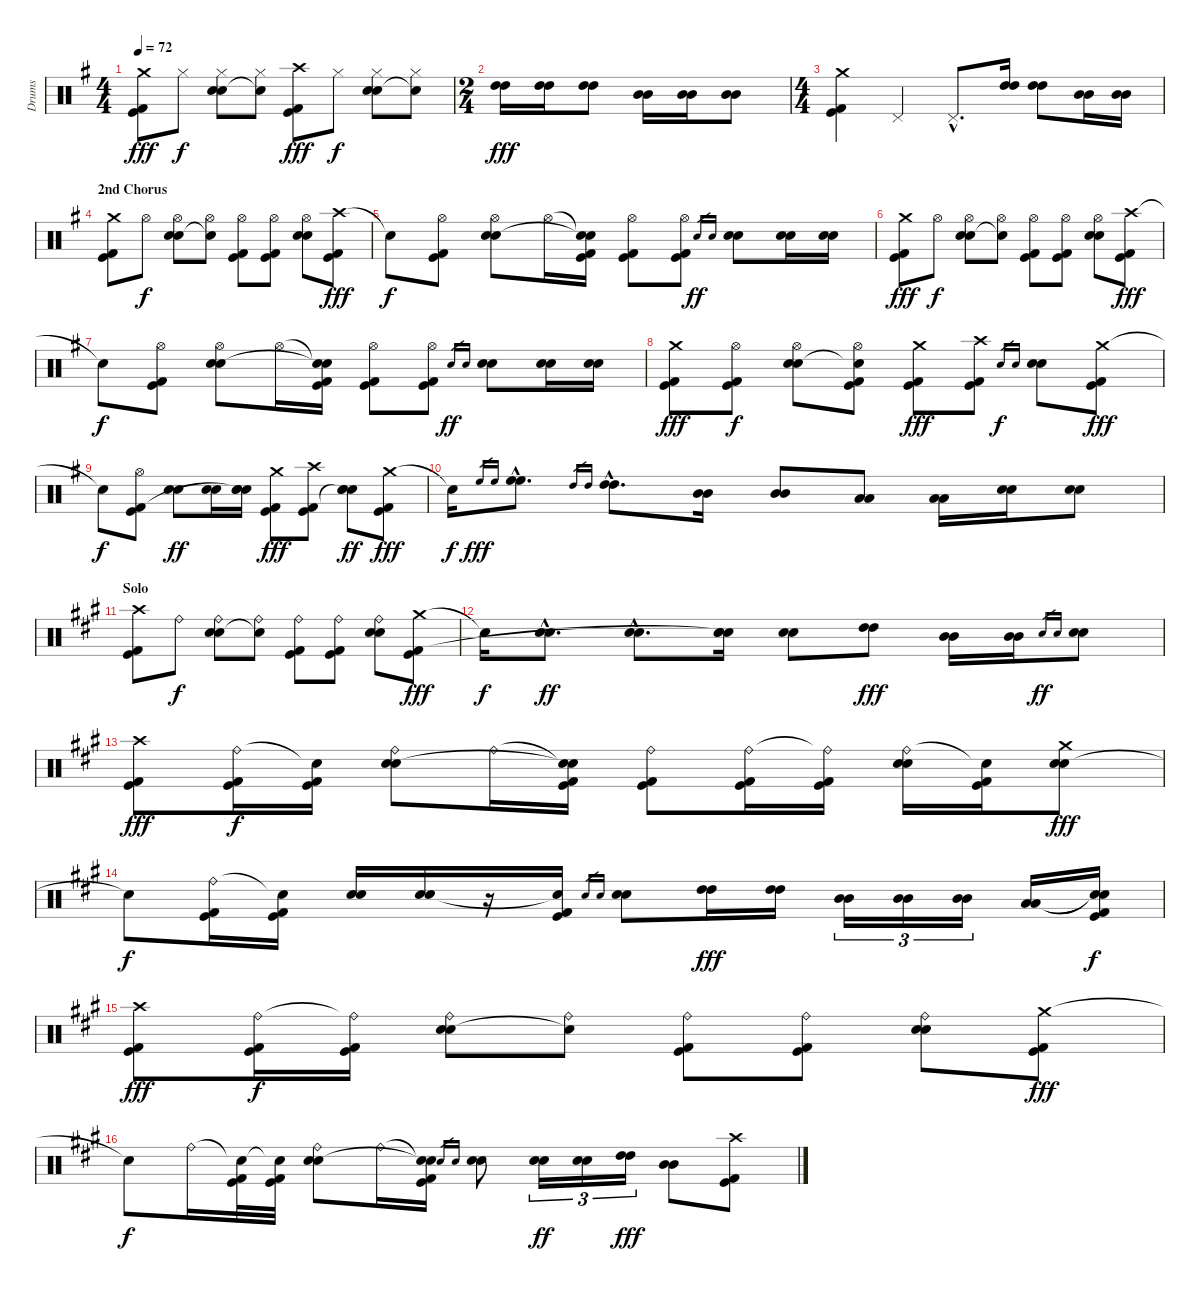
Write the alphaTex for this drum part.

\track ("Drums" "Drums") {instrument percussion}
\staff {score}
\articulation defaults
\ts (4 4)
\tempo 72
\clef neutral
\ks g
("Crash medium (hit)" "Kick (hit)" "Kick (hit) 2").8{dy fff} "Hi-Hat (closed)".8{dy f} ("Hi-Hat (closed)" "Electric Snare (hit)" "Snare (hit) 2").8 ("Hi-Hat (closed)" "Snare (hit)"{t}).8 ("Crash high (hit)" "Kick (hit)" "Kick (hit) 2").8{dy fff} "Hi-Hat (closed)".8{dy f} ("Hi-Hat (closed)" "Electric Snare (hit)" "Snare (hit) 2").8 ("Hi-Hat (closed)" "Snare (hit)"{t}).8 |
\ts (2 4)
("High Tom (hit)" "High Tom (hit)").16{dy fff} ("High Tom (hit)" "High Tom (hit)").16 ("High Tom (hit)" "High Tom (hit)").8 ("Mid Tom (hit)" "Mid Tom (hit)").16 ("Mid Tom (hit)" "Mid Tom (hit)").16 ("Mid Tom (hit)" "Mid Tom (hit)").8 |
\ts (4 4)
("Crash medium (hit)" "Kick (hit)" "Kick (hit) 2").4 "Pedal Hi-Hat (hit)".4 "Pedal Hi-Hat (hit)"{hac}.8{d} ("High Tom (hit)" "High Tom (hit)").16 ("High Tom (hit)" "High Tom (hit)").8 ("Mid Tom (hit)" "Mid Tom (hit)").16 ("Mid Tom (hit)" "Mid Tom (hit)").16 |
\section ("" "2nd Chorus")
("Crash medium (hit)" "Kick (hit)" "Kick (hit) 2").8 "Hi-Hat (open)".8{dy f} ("Hi-Hat (open)" "Electric Snare (hit)" "Snare (hit) 2").8 ("Hi-Hat (open)" "Snare (hit)"{t}).8 ("Hi-Hat (open)" "Kick (hit)" "Kick (hit) 2").8 ("Hi-Hat (open)" "Kick (hit)" "Kick (hit) 2").8 ("Hi-Hat (open)" "Electric Snare (hit)" "Snare (hit) 2").8 ("Crash high (hit)" "Kick (hit)" "Kick (hit) 2").8{dy fff} |
"Snare (hit)"{t}.8{dy f} ("Hi-Hat (open)" "Kick (hit)" "Kick (hit) 2").8 ("Hi-Hat (open)" "Electric Snare (hit)" "Snare (hit) 2").8 "Hi-Hat (open)".16 ("Snare (hit)"{t} "Snare (hit)"{t} "Kick (hit)" "Kick (hit) 2").16 ("Hi-Hat (open)" "Kick (hit)" "Kick (hit) 2").8 ("Hi-Hat (open)" "Kick (hit)" "Kick (hit) 2").8 "Electric Snare (hit)".16{gr dy ff} "Snare (hit) 2".16{gr} ("Electric Snare (hit)" "Snare (hit) 2").8 ("Electric Snare (hit)" "Snare (hit) 2").16 ("Electric Snare (hit)" "Snare (hit) 2").16 |
("Crash medium (hit)" "Kick (hit)" "Kick (hit) 2").8{dy fff} "Hi-Hat (open)".8{dy f} ("Hi-Hat (open)" "Electric Snare (hit)" "Snare (hit) 2").8 ("Hi-Hat (open)" "Snare (hit)"{t}).8 ("Hi-Hat (open)" "Kick (hit)" "Kick (hit) 2").8 ("Hi-Hat (open)" "Kick (hit)" "Kick (hit) 2").8 ("Hi-Hat (open)" "Electric Snare (hit)" "Snare (hit) 2").8 ("Crash high (hit)" "Kick (hit)" "Kick (hit) 2").8{dy fff} |
"Snare (hit)"{t}.8{dy f} ("Hi-Hat (open)" "Kick (hit)" "Kick (hit) 2").8 ("Hi-Hat (open)" "Electric Snare (hit)" "Snare (hit) 2").8 "Hi-Hat (open)".16 ("Snare (hit)"{t} "Snare (hit)"{t} "Kick (hit)" "Kick (hit) 2").16 ("Hi-Hat (open)" "Kick (hit)" "Kick (hit) 2").8 ("Hi-Hat (open)" "Kick (hit)" "Kick (hit) 2").8 "Electric Snare (hit)".16{gr dy ff} "Snare (hit) 2".16{gr} ("Electric Snare (hit)" "Snare (hit) 2").8 ("Electric Snare (hit)" "Snare (hit) 2").16 ("Electric Snare (hit)" "Snare (hit) 2").16 |
("Crash medium (hit)" "Kick (hit)" "Kick (hit) 2").8{dy fff} ("Hi-Hat (open)" "Kick (hit)" "Kick (hit) 2").8{dy f} ("Hi-Hat (open)" "Electric Snare (hit)" "Snare (hit) 2").8 ("Hi-Hat (open)" "Snare (hit)"{t} "Kick (hit)" "Kick (hit) 2").8 ("Crash medium (hit)" "Kick (hit)" "Kick (hit) 2").8{dy fff} ("Crash high (hit)" "Kick (hit)" "Kick (hit) 2").8 "Electric Snare (hit)".16{gr dy f} "Snare (hit) 2".16{gr} ("Electric Snare (hit)" "Snare (hit) 2").8 ("Crash medium (hit)" "Kick (hit)" "Kick (hit) 2").8{dy fff} |
"Snare (hit)"{t}.8{dy f} ("Hi-Hat (open)" "Kick (hit)" "Kick (hit) 2").8 ("Electric Snare (hit)" "Snare (hit) 2").8{dy ff} ("Electric Snare (hit)" "Snare (hit) 2").16 ("Electric Snare (hit)" "Snare (hit) 2" "Snare (hit)"{t}).16 ("Crash medium (hit)" "Kick (hit)" "Kick (hit) 2").8{dy fff} ("Crash high (hit)" "Kick (hit)" "Kick (hit) 2").8 ("Electric Snare (hit)" "Snare (hit) 2" "Snare (hit)"{t}).8{dy ff} ("Crash medium (hit)" "Kick (hit)" "Kick (hit) 2").8{dy fff} |
"Snare (hit)"{t}.16{dy f} "High Floor Tom (hit)".16{gr dy fff} "High Floor Tom (hit)".16{gr} ("High Floor Tom (hit)"{hac} "High Floor Tom (hit)"{hac}).8{d} "High Tom (hit)".16{gr} "High Tom (hit)".16{gr} ("High Tom (hit)"{hac} "High Tom (hit)"{hac}).8{d} ("Mid Tom (hit)" "Mid Tom (hit)").16 ("Mid Tom (hit)" "Mid Tom (hit)").8 ("Low Tom (hit)" "Low Tom (hit)").8 ("Low Tom (hit)" "Low Tom (hit)").16 ("Electric Snare (hit)" "Snare (hit) 2").16 ("Electric Snare (hit)" "Snare (hit) 2").8 |
\section ("" "Solo")
\ks a
("Crash high (hit)" "Kick (hit)" "Kick (hit) 2").8 "Ride (bell)".8{dy f} ("Ride (bell)" "Electric Snare (hit)" "Snare (hit) 2").8 ("Ride (bell)" "Snare (hit)"{t}).8 ("Ride (bell)" "Kick (hit)" "Kick (hit) 2").8 ("Ride (bell)" "Kick (hit)" "Kick (hit) 2").8 ("Ride (bell)" "Electric Snare (hit)" "Snare (hit) 2").8 ("Crash medium (hit)" "Kick (hit)" "Kick (hit) 2").8{dy fff} |
"Snare (hit)"{t}.16{dy f} ("Electric Snare (hit)"{hac} "Snare (hit) 2"{hac}).8{d dy ff} ("Electric Snare (hit)"{hac} "Snare (hit) 2"{hac}).8{d} ("Electric Snare (hit)" "Snare (hit) 2" "Snare (hit)"{t}).16 ("Electric Snare (hit)" "Snare (hit) 2").8 ("High Tom (hit)" "High Tom (hit)").8{dy fff} ("Mid Tom (hit)" "Mid Tom (hit)").16 ("Mid Tom (hit)" "Mid Tom (hit)").16 "Electric Snare (hit)".16{gr dy ff} "Snare (hit) 2".16{gr} ("Electric Snare (hit)" "Snare (hit) 2").8 |
("Crash high (hit)" "Kick (hit)" "Kick (hit) 2").8{dy fff} ("Ride (bell)" "Kick (hit)" "Kick (hit) 2").16{dy f} ("Snare (hit)"{t} "Kick (hit)" "Kick (hit) 2").16 ("Ride (bell)" "Electric Snare (hit)" "Snare (hit) 2").8 "Ride (bell)".16 ("Snare (hit)"{t} "Snare (hit)"{t} "Kick (hit)" "Kick (hit) 2").16 ("Ride (bell)" "Kick (hit)" "Kick (hit) 2").8 ("Ride (bell)" "Kick (hit)" "Kick (hit) 2").16 ("Ride (bell)"{t} "Kick (hit)" "Kick (hit) 2").16 ("Ride (bell)" "Electric Snare (hit)" "Snare (hit) 2").16 ("Snare (hit)"{t} "Kick (hit)" "Kick (hit) 2").16 ("Electric Snare (hit)" "Snare (hit) 2" "Crash medium (hit)").8{dy fff} |
"Snare (hit)"{t}.8{dy f} ("Ride (bell)" "Kick (hit)" "Kick (hit) 2").16 ("Snare (hit)"{t} "Kick (hit)" "Kick (hit) 2").16 ("Electric Snare (hit)" "Snare (hit) 2").16 ("Electric Snare (hit)" "Snare (hit) 2").16 r.16 ("Snare (hit)"{t} "Kick (hit)" "Kick (hit) 2").16 "Electric Snare (hit)".16{gr} "Snare (hit) 2".16{gr} ("Electric Snare (hit)" "Snare (hit) 2").8 ("High Tom (hit)" "High Tom (hit)").16{dy fff} ("High Tom (hit)" "High Tom (hit)").16 ("Mid Tom (hit)" "Mid Tom (hit)").16{tu (3 2)} ("Mid Tom (hit)" "Mid Tom (hit)").16{tu (3 2)} ("Mid Tom (hit)" "Mid Tom (hit)").16{tu (3 2)} ("Low Tom (hit)" "Low Tom (hit)").16 ("Snare (hit)"{t} "Snare (hit)"{t} "Kick (hit)" "Kick (hit) 2").16{dy f} |
("Crash high (hit)" "Kick (hit)" "Kick (hit) 2").8{dy fff} ("Ride (bell)" "Kick (hit)" "Kick (hit) 2").16{dy f} ("Ride (bell)"{t} "Kick (hit)" "Kick (hit) 2").16 ("Ride (bell)" "Electric Snare (hit)" "Snare (hit) 2").8 ("Ride (bell)" "Snare (hit)"{t}).8 ("Ride (bell)" "Kick (hit)" "Kick (hit) 2").8 ("Ride (bell)" "Kick (hit)" "Kick (hit) 2").8 ("Ride (bell)" "Electric Snare (hit)" "Snare (hit) 2").8 ("Crash medium (hit)" "Kick (hit)" "Kick (hit) 2").8{dy fff} |
"Snare (hit)"{t}.8{dy f} "Ride (bell)".16 ("Snare (hit)"{t} "Kick (hit)" "Kick (hit) 2").32 ("Snare (hit)"{t} "Kick (hit)" "Kick (hit) 2").32 ("Ride (bell)" "Electric Snare (hit)" "Snare (hit) 2").8 "Ride (bell)".16 ("Snare (hit)"{t} "Snare (hit)"{t} "Kick (hit)" "Kick (hit) 2").16 "Electric Snare (hit)".16{gr} "Snare (hit) 2".16{gr} ("Electric Snare (hit)" "Snare (hit) 2").8 ("Electric Snare (hit)" "Snare (hit) 2").16{tu (3 2) dy ff} ("Electric Snare (hit)" "Snare (hit) 2").16{tu (3 2)} ("High Tom (hit)" "High Tom (hit)").16{tu (3 2) dy fff} ("Mid Tom (hit)" "Mid Tom (hit)").8 ("Crash high (hit)" "Kick (hit)" "Kick (hit) 2").8
